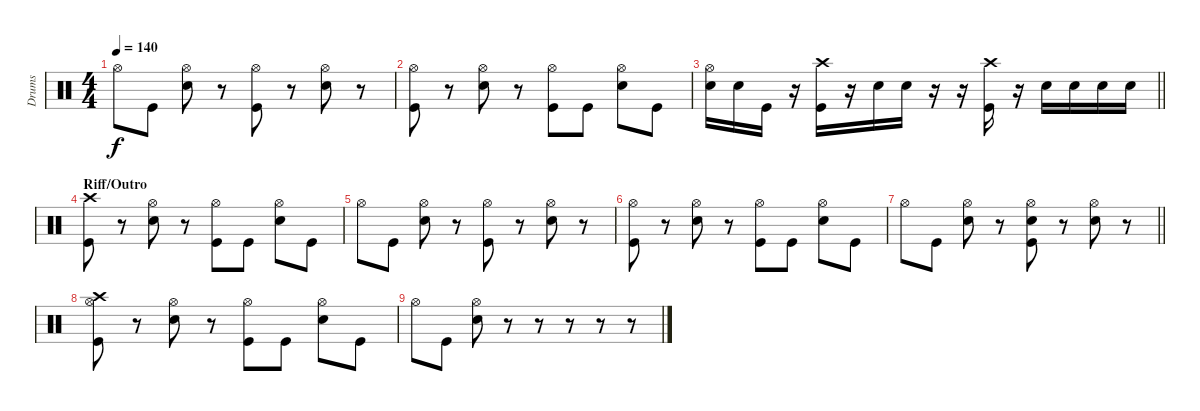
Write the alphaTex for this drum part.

\track ("Drums" "Drums") {instrument percussion}
\staff {score}
\articulation defaults
\ts (4 4)
\tempo 140
\clef neutral
\ks c "Hi-Hat (open)".8{dy f} "Kick (hit)".8
("Electric Snare (hit)" "Hi-Hat (open)").8 r.8 ("Kick (hit)" "Hi-Hat (open)").8 r.8 ("Electric Snare (hit)" "Hi-Hat (open)").8 r.8 |
("Kick (hit)" "Hi-Hat (open)").8 r.8 ("Electric Snare (hit)" "Hi-Hat (open)").8 r.8 ("Kick (hit)" "Hi-Hat (open)").8 "Kick (hit)".8 ("Electric Snare (hit)" "Hi-Hat (open)").8 "Kick (hit)".8 |
\barLineRight lightlight
("Electric Snare (hit)" "Hi-Hat (open)").16 "Electric Snare (hit)".16 "Kick (hit)".16 r.16 ("Kick (hit)" "Crash high (hit)").16 r.16 "Electric Snare (hit)".16 "Electric Snare (hit)".16 r.16 r.16 ("Kick (hit)" "Crash high (hit)").16 r.16 "Electric Snare (hit)".16 "Electric Snare (hit)".16 "Electric Snare (hit)".16 "Electric Snare (hit)".16 |
\section ("" "Riff/Outro")
("Kick (hit)" "Crash high (hit)").8 r.8 ("Electric Snare (hit)" "Hi-Hat (open)").8 r.8 ("Kick (hit)" "Hi-Hat (open)").8 "Kick (hit)".8 ("Electric Snare (hit)" "Hi-Hat (open)").8 "Kick (hit)".8 |
"Hi-Hat (open)".8 "Kick (hit)".8 ("Electric Snare (hit)" "Hi-Hat (open)").8 r.8 ("Kick (hit)" "Hi-Hat (open)").8 r.8 ("Electric Snare (hit)" "Hi-Hat (open)").8 r.8 |
("Kick (hit)" "Hi-Hat (open)").8 r.8 ("Electric Snare (hit)" "Hi-Hat (open)").8 r.8 ("Kick (hit)" "Hi-Hat (open)").8 "Kick (hit)".8 ("Electric Snare (hit)" "Hi-Hat (open)").8 "Kick (hit)".8 |
\barLineRight lightlight "Hi-Hat (open)".8 "Kick (hit)".8
("Electric Snare (hit)" "Hi-Hat (open)").8 r.8 ("Kick (hit)" "Electric Snare (hit)" "Hi-Hat (open)").8 r.8 ("Electric Snare (hit)" "Hi-Hat (open)").8 r.8 |
("Kick (hit)" "Hi-Hat (open)" "Crash high (hit)").8 r.8 ("Electric Snare (hit)" "Hi-Hat (open)").8 r.8 ("Kick (hit)" "Hi-Hat (open)").8 "Kick (hit)".8 ("Electric Snare (hit)" "Hi-Hat (open)").8 "Kick (hit)".8 |
"Hi-Hat (open)".8 "Kick (hit)".8 ("Electric Snare (hit)" "Hi-Hat (open)").8 r.8 r.8 r.8 r.8 r.8
